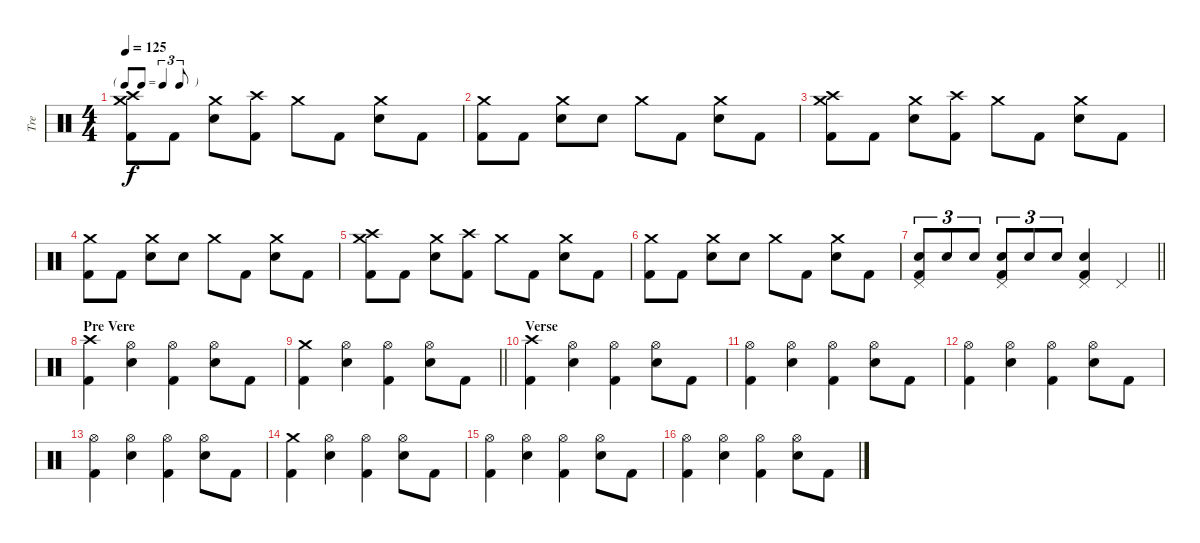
\track ("Tre" "Tre") {instrument percussion}
\staff {score}
\articulation defaults
\ts (4 4)
\tf triplet8th
\tempo 125
\clef neutral
\ks c
("Crash medium (hit)" "Crash high (hit)" "Kick (hit) 2").8{dy f} "Kick (hit) 2".8 ("Crash medium (hit)" "Snare (hit) 2").8 ("Crash high (hit)" "Kick (hit) 2").8 "Crash medium (hit)".8 "Kick (hit) 2".8 ("Crash medium (hit)" "Snare (hit) 2").8 "Kick (hit) 2".8 |
("Crash medium (hit)" "Kick (hit) 2").8 "Kick (hit) 2".8 ("Crash medium (hit)" "Snare (hit) 2").8 "Snare (hit) 2".8 "Crash medium (hit)".8 "Kick (hit) 2".8 ("Crash medium (hit)" "Snare (hit) 2").8 "Kick (hit) 2".8 |
("Crash medium (hit)" "Crash high (hit)" "Kick (hit) 2").8 "Kick (hit) 2".8 ("Crash medium (hit)" "Snare (hit) 2").8 ("Crash high (hit)" "Kick (hit) 2").8 "Crash medium (hit)".8 "Kick (hit) 2".8 ("Crash medium (hit)" "Snare (hit) 2").8 "Kick (hit) 2".8 |
("Crash medium (hit)" "Kick (hit) 2").8 "Kick (hit) 2".8 ("Crash medium (hit)" "Snare (hit) 2").8 "Snare (hit) 2".8 "Crash medium (hit)".8 "Kick (hit) 2".8 ("Crash medium (hit)" "Snare (hit) 2").8 "Kick (hit) 2".8 |
("Crash medium (hit)" "Crash high (hit)" "Kick (hit) 2").8 "Kick (hit) 2".8 ("Crash medium (hit)" "Snare (hit) 2").8 ("Crash high (hit)" "Kick (hit) 2").8 "Crash medium (hit)".8 "Kick (hit) 2".8 ("Crash medium (hit)" "Snare (hit) 2").8 "Kick (hit) 2".8 |
("Crash medium (hit)" "Kick (hit) 2").8 "Kick (hit) 2".8 ("Crash medium (hit)" "Snare (hit) 2").8 "Snare (hit) 2".8 "Crash medium (hit)".8 "Kick (hit) 2".8 ("Crash medium (hit)" "Snare (hit) 2").8 "Kick (hit) 2".8 |
\barLineRight lightlight
("Snare (hit) 2" "Pedal Hi-Hat (hit)" "Kick (hit) 2").8{tu (3 2)} "Snare (hit) 2".8{tu (3 2)} "Snare (hit) 2".8{tu (3 2)} ("Snare (hit) 2" "Pedal Hi-Hat (hit)" "Kick (hit) 2").8{tu (3 2)} "Snare (hit) 2".8{tu (3 2)} "Snare (hit) 2".8{tu (3 2)} ("Snare (hit) 2" "Pedal Hi-Hat (hit)" "Kick (hit) 2").4 "Pedal Hi-Hat (hit)".4 |
\section ("" "Pre Vere")
("Crash high (hit)" "Kick (hit) 2").4 ("Hi-Hat (open)" "Snare (hit) 2").4 ("Hi-Hat (open)" "Kick (hit) 2").4 ("Hi-Hat (open)" "Snare (hit) 2").8 "Kick (hit) 2".8 |
\barLineRight lightlight
("Crash medium (hit)" "Kick (hit) 2").4 ("Hi-Hat (open)" "Snare (hit) 2").4 ("Hi-Hat (open)" "Kick (hit) 2").4 ("Hi-Hat (open)" "Snare (hit) 2").8 "Kick (hit) 2".8 |
\section ("" "Verse")
("Crash high (hit)" "Kick (hit) 2").4 ("Hi-Hat (open)" "Snare (hit) 2").4 ("Hi-Hat (open)" "Kick (hit) 2").4 ("Hi-Hat (open)" "Snare (hit) 2").8 "Kick (hit) 2".8 |
("Hi-Hat (open)" "Kick (hit) 2").4 ("Hi-Hat (open)" "Snare (hit) 2").4 ("Hi-Hat (open)" "Kick (hit) 2").4 ("Hi-Hat (open)" "Snare (hit) 2").8 "Kick (hit) 2".8 |
("Hi-Hat (open)" "Kick (hit) 2").4 ("Hi-Hat (open)" "Snare (hit) 2").4 ("Hi-Hat (open)" "Kick (hit) 2").4 ("Hi-Hat (open)" "Snare (hit) 2").8 "Kick (hit) 2".8 |
("Hi-Hat (open)" "Kick (hit) 2").4 ("Hi-Hat (open)" "Snare (hit) 2").4 ("Hi-Hat (open)" "Kick (hit) 2").4 ("Hi-Hat (open)" "Snare (hit) 2").8 "Kick (hit) 2".8 |
("Crash medium (hit)" "Kick (hit) 2").4 ("Hi-Hat (open)" "Snare (hit) 2").4 ("Hi-Hat (open)" "Kick (hit) 2").4 ("Hi-Hat (open)" "Snare (hit) 2").8 "Kick (hit) 2".8 |
("Hi-Hat (open)" "Kick (hit) 2").4 ("Hi-Hat (open)" "Snare (hit) 2").4 ("Hi-Hat (open)" "Kick (hit) 2").4 ("Hi-Hat (open)" "Snare (hit) 2").8 "Kick (hit) 2".8 |
("Hi-Hat (open)" "Kick (hit) 2").4 ("Hi-Hat (open)" "Snare (hit) 2").4 ("Hi-Hat (open)" "Kick (hit) 2").4 ("Hi-Hat (open)" "Snare (hit) 2").8 "Kick (hit) 2".8
